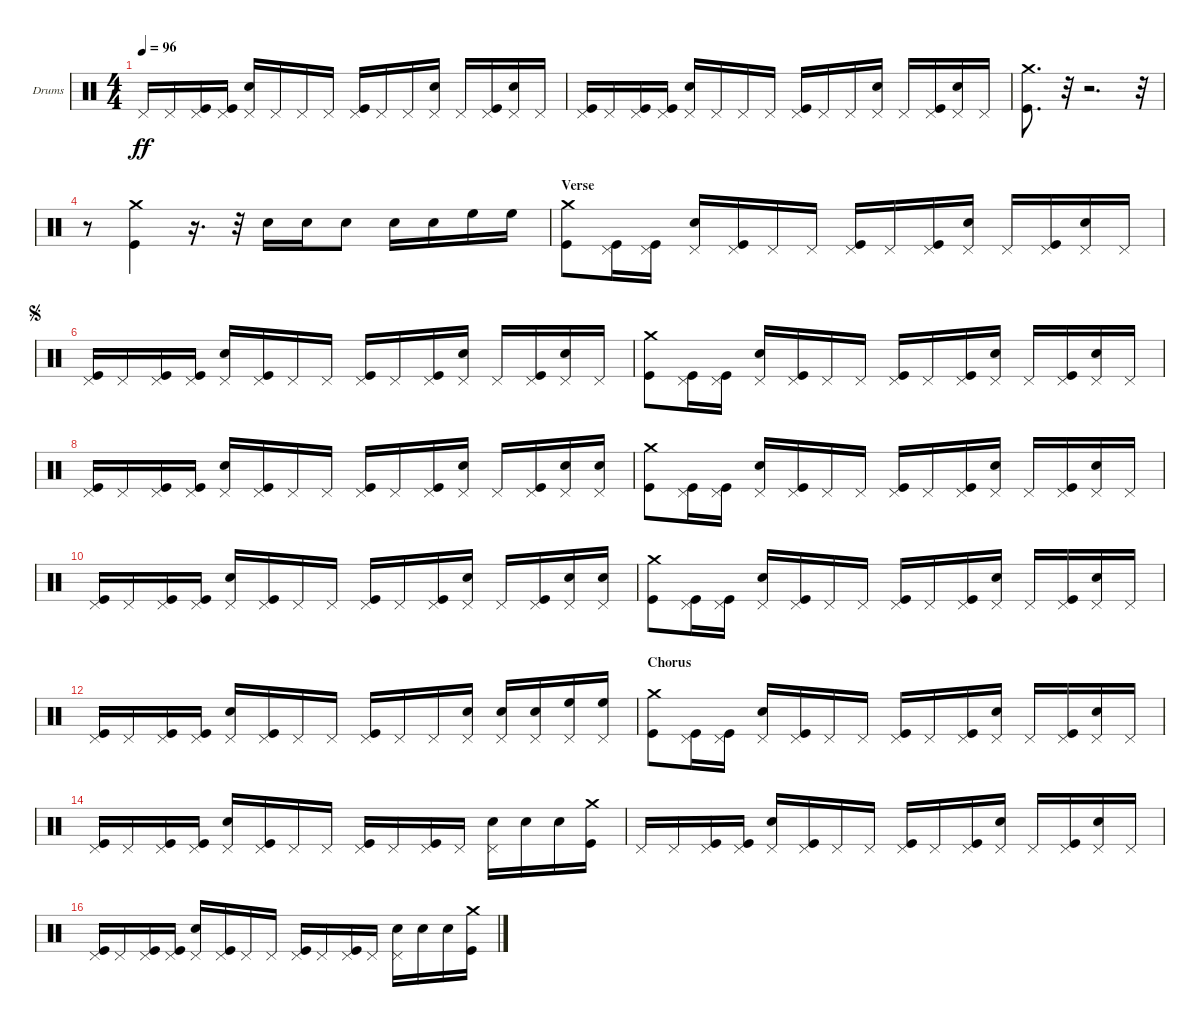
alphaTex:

\bracketExtendMode nobrackets
\firstSystemTrackNameOrientation horizontal
\otherSystemsTrackNameOrientation horizontal
\defaultBarNumberDisplay FirstOfSystem
\track ("Drums" "Drums") {instrument percussion}
\staff {score}
\articulation defaults
\ts (4 4)
\tempo 96
\clef neutral
\ks c "Pedal Hi-Hat (hit)".16{dy ff} "Pedal Hi-Hat (hit)".16
("Kick (hit)" "Pedal Hi-Hat (hit)").16 ("Kick (hit)" "Pedal Hi-Hat (hit)").16 ("Snare (hit) 2" "Pedal Hi-Hat (hit)").16 "Pedal Hi-Hat (hit)".16 "Pedal Hi-Hat (hit)".16 "Pedal Hi-Hat (hit)".16 ("Kick (hit)" "Pedal Hi-Hat (hit)").16 "Pedal Hi-Hat (hit)".16 "Pedal Hi-Hat (hit)".16 ("Snare (hit) 2" "Pedal Hi-Hat (hit)").16 "Pedal Hi-Hat (hit)".16 ("Kick (hit)" "Pedal Hi-Hat (hit)").16 ("Snare (hit) 2" "Pedal Hi-Hat (hit)").16 "Pedal Hi-Hat (hit)".16 |
("Kick (hit)" "Pedal Hi-Hat (hit)").16 "Pedal Hi-Hat (hit)".16 ("Kick (hit)" "Pedal Hi-Hat (hit)").16 ("Kick (hit)" "Pedal Hi-Hat (hit)").16 ("Snare (hit) 2" "Pedal Hi-Hat (hit)").16 "Pedal Hi-Hat (hit)".16 "Pedal Hi-Hat (hit)".16 "Pedal Hi-Hat (hit)".16 ("Kick (hit)" "Pedal Hi-Hat (hit)").16 "Pedal Hi-Hat (hit)".16 "Pedal Hi-Hat (hit)".16 ("Snare (hit) 2" "Pedal Hi-Hat (hit)").16 "Pedal Hi-Hat (hit)".16 ("Kick (hit)" "Pedal Hi-Hat (hit)").16 ("Snare (hit) 2" "Pedal Hi-Hat (hit)").16 "Pedal Hi-Hat (hit)".16 |
("Kick (hit)" "Crash medium (hit)").8{d} r.32 r.2{d} r.32 |
r.8 ("Kick (hit)" "Crash medium (hit)").4 r.16{d} r.32 "Snare (hit) 2".16 "Snare (hit) 2".16 "Snare (hit) 2".8 "Snare (hit) 2".16 "Snare (hit) 2".16 "High Floor Tom (hit)".16 "High Floor Tom (hit)".16 |
\section ("" "Verse")
("Kick (hit)" "Crash medium (hit)").8 ("Kick (hit)" "Pedal Hi-Hat (hit)").16 ("Kick (hit)" "Pedal Hi-Hat (hit)").16 ("Snare (hit) 2" "Pedal Hi-Hat (hit)").16 ("Kick (hit)" "Pedal Hi-Hat (hit)").16 "Pedal Hi-Hat (hit)".16 "Pedal Hi-Hat (hit)".16 ("Kick (hit)" "Pedal Hi-Hat (hit)").16 "Pedal Hi-Hat (hit)".16 ("Kick (hit)" "Pedal Hi-Hat (hit)").16 ("Snare (hit) 2" "Pedal Hi-Hat (hit)").16 "Pedal Hi-Hat (hit)".16 ("Kick (hit)" "Pedal Hi-Hat (hit)").16 ("Snare (hit) 2" "Pedal Hi-Hat (hit)").16 "Pedal Hi-Hat (hit)".16 |
\jump segno
("Kick (hit)" "Pedal Hi-Hat (hit)").16 "Pedal Hi-Hat (hit)".16 ("Kick (hit)" "Pedal Hi-Hat (hit)").16 ("Kick (hit)" "Pedal Hi-Hat (hit)").16 ("Snare (hit) 2" "Pedal Hi-Hat (hit)").16 ("Kick (hit)" "Pedal Hi-Hat (hit)").16 "Pedal Hi-Hat (hit)".16 "Pedal Hi-Hat (hit)".16 ("Kick (hit)" "Pedal Hi-Hat (hit)").16 "Pedal Hi-Hat (hit)".16 ("Kick (hit)" "Pedal Hi-Hat (hit)").16 ("Snare (hit) 2" "Pedal Hi-Hat (hit)").16 "Pedal Hi-Hat (hit)".16 ("Kick (hit)" "Pedal Hi-Hat (hit)").16 ("Snare (hit) 2" "Pedal Hi-Hat (hit)").16 "Pedal Hi-Hat (hit)".16 |
("Kick (hit)" "Crash medium (hit)").8 ("Kick (hit)" "Pedal Hi-Hat (hit)").16 ("Kick (hit)" "Pedal Hi-Hat (hit)").16 ("Snare (hit) 2" "Pedal Hi-Hat (hit)").16 ("Kick (hit)" "Pedal Hi-Hat (hit)").16 "Pedal Hi-Hat (hit)".16 "Pedal Hi-Hat (hit)".16 ("Kick (hit)" "Pedal Hi-Hat (hit)").16 "Pedal Hi-Hat (hit)".16 ("Kick (hit)" "Pedal Hi-Hat (hit)").16 ("Snare (hit) 2" "Pedal Hi-Hat (hit)").16 "Pedal Hi-Hat (hit)".16 ("Kick (hit)" "Pedal Hi-Hat (hit)").16 ("Snare (hit) 2" "Pedal Hi-Hat (hit)").16 "Pedal Hi-Hat (hit)".16 |
("Kick (hit)" "Pedal Hi-Hat (hit)").16 "Pedal Hi-Hat (hit)".16 ("Kick (hit)" "Pedal Hi-Hat (hit)").16 ("Kick (hit)" "Pedal Hi-Hat (hit)").16 ("Snare (hit) 2" "Pedal Hi-Hat (hit)").16 ("Kick (hit)" "Pedal Hi-Hat (hit)").16 "Pedal Hi-Hat (hit)".16 "Pedal Hi-Hat (hit)".16 ("Kick (hit)" "Pedal Hi-Hat (hit)").16 "Pedal Hi-Hat (hit)".16 ("Kick (hit)" "Pedal Hi-Hat (hit)").16 ("Snare (hit) 2" "Pedal Hi-Hat (hit)").16 "Pedal Hi-Hat (hit)".16 ("Kick (hit)" "Pedal Hi-Hat (hit)").16 ("Snare (hit) 2" "Pedal Hi-Hat (hit)").16 ("Snare (hit) 2" "Pedal Hi-Hat (hit)").16 |
("Kick (hit)" "Crash medium (hit)").8 ("Kick (hit)" "Pedal Hi-Hat (hit)").16 ("Kick (hit)" "Pedal Hi-Hat (hit)").16 ("Snare (hit) 2" "Pedal Hi-Hat (hit)").16 ("Kick (hit)" "Pedal Hi-Hat (hit)").16 "Pedal Hi-Hat (hit)".16 "Pedal Hi-Hat (hit)".16 ("Kick (hit)" "Pedal Hi-Hat (hit)").16 "Pedal Hi-Hat (hit)".16 ("Kick (hit)" "Pedal Hi-Hat (hit)").16 ("Snare (hit) 2" "Pedal Hi-Hat (hit)").16 "Pedal Hi-Hat (hit)".16 ("Kick (hit)" "Pedal Hi-Hat (hit)").16 ("Snare (hit) 2" "Pedal Hi-Hat (hit)").16 "Pedal Hi-Hat (hit)".16 |
("Kick (hit)" "Pedal Hi-Hat (hit)").16 "Pedal Hi-Hat (hit)".16 ("Kick (hit)" "Pedal Hi-Hat (hit)").16 ("Kick (hit)" "Pedal Hi-Hat (hit)").16 ("Snare (hit) 2" "Pedal Hi-Hat (hit)").16 ("Kick (hit)" "Pedal Hi-Hat (hit)").16 "Pedal Hi-Hat (hit)".16 "Pedal Hi-Hat (hit)".16 ("Kick (hit)" "Pedal Hi-Hat (hit)").16 "Pedal Hi-Hat (hit)".16 ("Kick (hit)" "Pedal Hi-Hat (hit)").16 ("Snare (hit) 2" "Pedal Hi-Hat (hit)").16 "Pedal Hi-Hat (hit)".16 ("Kick (hit)" "Pedal Hi-Hat (hit)").16 ("Snare (hit) 2" "Pedal Hi-Hat (hit)").16 ("Snare (hit) 2" "Pedal Hi-Hat (hit)").16 |
("Kick (hit)" "Crash medium (hit)").8 ("Kick (hit)" "Pedal Hi-Hat (hit)").16 ("Kick (hit)" "Pedal Hi-Hat (hit)").16 ("Snare (hit) 2" "Pedal Hi-Hat (hit)").16 ("Kick (hit)" "Pedal Hi-Hat (hit)").16 "Pedal Hi-Hat (hit)".16 "Pedal Hi-Hat (hit)".16 ("Kick (hit)" "Pedal Hi-Hat (hit)").16 "Pedal Hi-Hat (hit)".16 ("Kick (hit)" "Pedal Hi-Hat (hit)").16 ("Snare (hit) 2" "Pedal Hi-Hat (hit)").16 "Pedal Hi-Hat (hit)".16 ("Kick (hit)" "Pedal Hi-Hat (hit)").16 ("Snare (hit) 2" "Pedal Hi-Hat (hit)").16 "Pedal Hi-Hat (hit)".16 |
("Kick (hit)" "Pedal Hi-Hat (hit)").16 "Pedal Hi-Hat (hit)".16 ("Kick (hit)" "Pedal Hi-Hat (hit)").16 ("Kick (hit)" "Pedal Hi-Hat (hit)").16 ("Snare (hit) 2" "Pedal Hi-Hat (hit)").16 ("Kick (hit)" "Pedal Hi-Hat (hit)").16 "Pedal Hi-Hat (hit)".16 "Pedal Hi-Hat (hit)".16 ("Kick (hit)" "Pedal Hi-Hat (hit)").16 "Pedal Hi-Hat (hit)".16 "Pedal Hi-Hat (hit)".16 ("Snare (hit) 2" "Pedal Hi-Hat (hit)").16 ("Snare (hit) 2" "Pedal Hi-Hat (hit)").16 ("Snare (hit) 2" "Pedal Hi-Hat (hit)").16 ("Pedal Hi-Hat (hit)" "High Floor Tom (hit)").16 ("Pedal Hi-Hat (hit)" "High Floor Tom (hit)").16 |
\section ("" "Chorus")
("Kick (hit)" "Crash medium (hit)").8 ("Kick (hit)" "Pedal Hi-Hat (hit)").16 ("Kick (hit)" "Pedal Hi-Hat (hit)").16 ("Snare (hit) 2" "Pedal Hi-Hat (hit)").16 ("Kick (hit)" "Pedal Hi-Hat (hit)").16 "Pedal Hi-Hat (hit)".16 "Pedal Hi-Hat (hit)".16 ("Kick (hit)" "Pedal Hi-Hat (hit)").16 "Pedal Hi-Hat (hit)".16 ("Kick (hit)" "Pedal Hi-Hat (hit)").16 ("Snare (hit) 2" "Pedal Hi-Hat (hit)").16 "Pedal Hi-Hat (hit)".16 ("Kick (hit)" "Pedal Hi-Hat (hit)").16 ("Snare (hit) 2" "Pedal Hi-Hat (hit)").16 "Pedal Hi-Hat (hit)".16 |
("Kick (hit)" "Pedal Hi-Hat (hit)").16 "Pedal Hi-Hat (hit)".16 ("Kick (hit)" "Pedal Hi-Hat (hit)").16 ("Kick (hit)" "Pedal Hi-Hat (hit)").16 ("Snare (hit) 2" "Pedal Hi-Hat (hit)").16 ("Kick (hit)" "Pedal Hi-Hat (hit)").16 "Pedal Hi-Hat (hit)".16 "Pedal Hi-Hat (hit)".16 ("Kick (hit)" "Pedal Hi-Hat (hit)").16 "Pedal Hi-Hat (hit)".16 ("Kick (hit)" "Pedal Hi-Hat (hit)").16 "Pedal Hi-Hat (hit)".16 ("Snare (hit) 2" "Pedal Hi-Hat (hit)").16 "Snare (hit) 2".16 "Snare (hit) 2".16 ("Kick (hit)" "Crash medium (hit)").16 |
"Pedal Hi-Hat (hit)".16 "Pedal Hi-Hat (hit)".16 ("Kick (hit)" "Pedal Hi-Hat (hit)").16 ("Kick (hit)" "Pedal Hi-Hat (hit)").16 ("Snare (hit) 2" "Pedal Hi-Hat (hit)").16 ("Kick (hit)" "Pedal Hi-Hat (hit)").16 "Pedal Hi-Hat (hit)".16 "Pedal Hi-Hat (hit)".16 ("Kick (hit)" "Pedal Hi-Hat (hit)").16 "Pedal Hi-Hat (hit)".16 ("Kick (hit)" "Pedal Hi-Hat (hit)").16 ("Snare (hit) 2" "Pedal Hi-Hat (hit)").16 "Pedal Hi-Hat (hit)".16 ("Kick (hit)" "Pedal Hi-Hat (hit)").16 ("Snare (hit) 2" "Pedal Hi-Hat (hit)").16 "Pedal Hi-Hat (hit)".16 |
("Kick (hit)" "Pedal Hi-Hat (hit)").16 "Pedal Hi-Hat (hit)".16 ("Kick (hit)" "Pedal Hi-Hat (hit)").16 ("Kick (hit)" "Pedal Hi-Hat (hit)").16 ("Snare (hit) 2" "Pedal Hi-Hat (hit)").16 ("Kick (hit)" "Pedal Hi-Hat (hit)").16 "Pedal Hi-Hat (hit)".16 "Pedal Hi-Hat (hit)".16 ("Kick (hit)" "Pedal Hi-Hat (hit)").16 "Pedal Hi-Hat (hit)".16 ("Kick (hit)" "Pedal Hi-Hat (hit)").16 "Pedal Hi-Hat (hit)".16 ("Snare (hit) 2" "Pedal Hi-Hat (hit)").16 "Snare (hit) 2".16 "Snare (hit) 2".16 ("Kick (hit)" "Crash medium (hit)").16
